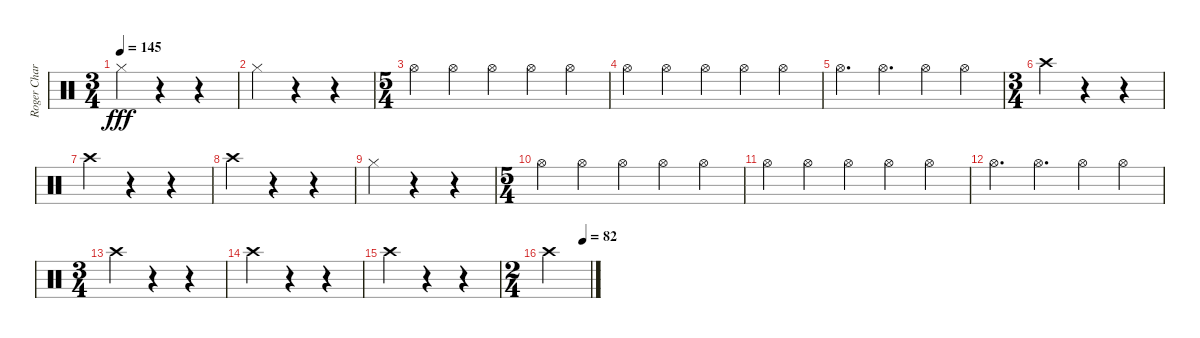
\track ("Roger Charlet" "Roger Char") {instrument percussion}
\staff {score}
\articulation defaults
\ts (3 4)
\tempo 145
\clef neutral
\ks c "Hi-Hat (closed)".4{dy fff}
r.4 r.4 |
"Hi-Hat (closed)".4 r.4 r.4 |
\ts (5 4)
"Hi-Hat (open)".4 "Hi-Hat (open)".4 "Hi-Hat (open)".4 "Hi-Hat (open)".4 "Hi-Hat (open)".4 |
"Hi-Hat (open)".4 "Hi-Hat (open)".4 "Hi-Hat (open)".4 "Hi-Hat (open)".4 "Hi-Hat (open)".4 |
"Hi-Hat (open)".4{d} "Hi-Hat (open)".4{d} "Hi-Hat (open)".4 "Hi-Hat (open)".4 |
\ts (3 4)
"Crash high (hit)".4 r.4 r.4 |
"Crash high (hit)".4 r.4 r.4 |
"Crash high (hit)".4 r.4 r.4 |
"Hi-Hat (closed)".4 r.4 r.4 |
\ts (5 4)
"Hi-Hat (open)".4 "Hi-Hat (open)".4 "Hi-Hat (open)".4 "Hi-Hat (open)".4 "Hi-Hat (open)".4 |
"Hi-Hat (open)".4 "Hi-Hat (open)".4 "Hi-Hat (open)".4 "Hi-Hat (open)".4 "Hi-Hat (open)".4 |
"Hi-Hat (open)".4{d} "Hi-Hat (open)".4{d} "Hi-Hat (open)".4 "Hi-Hat (open)".4 |
\ts (3 4)
"Crash high (hit)".4 r.4 r.4 |
"Crash high (hit)".4 r.4 r.4 |
"Crash high (hit)".4 r.4 r.4 |
\ts (2 4)
\tempo (82 0.8333333333333334)
"Crash high (hit)".2
